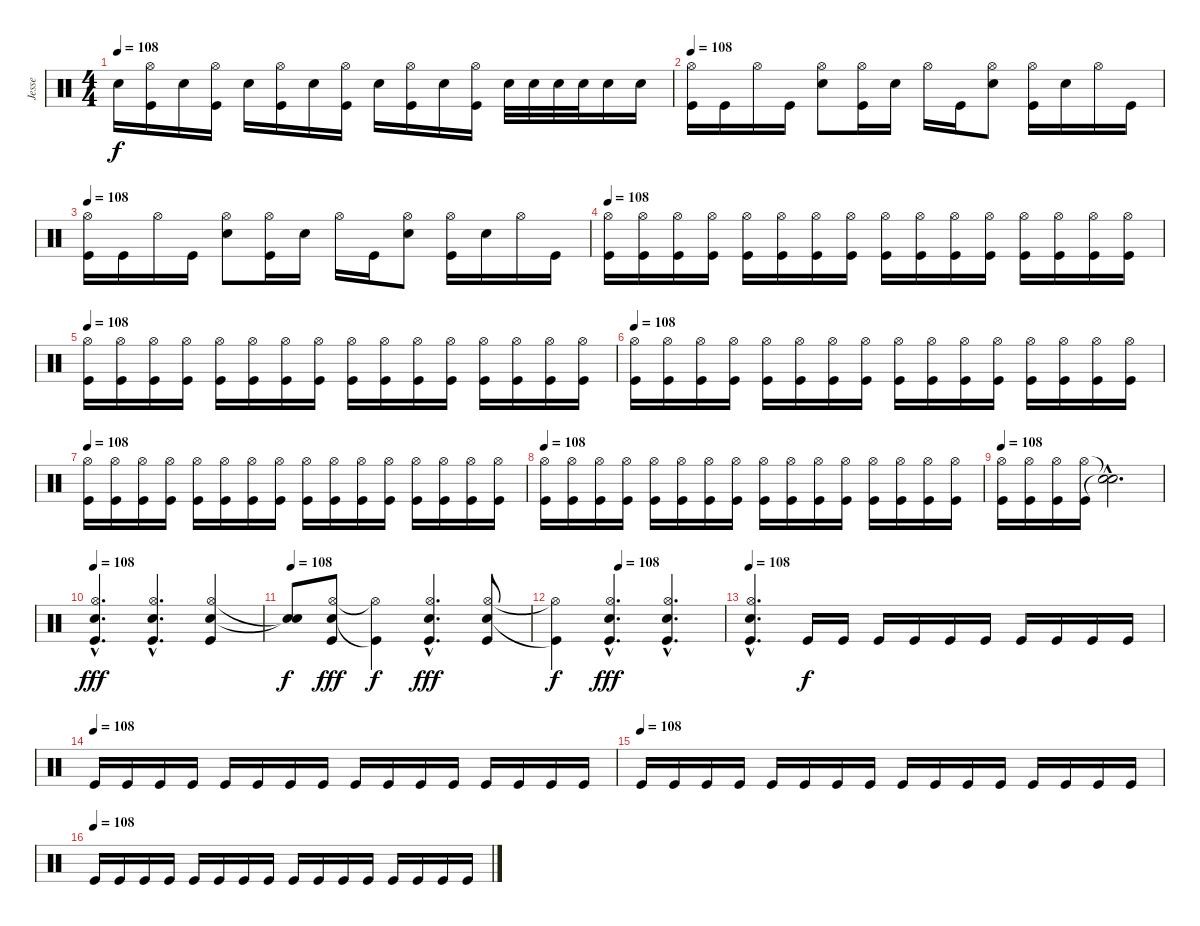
\track ("Jesse" "Jesse") {instrument percussion}
\staff {score}
\articulation defaults
\ts (4 4)
\tempo 108
\clef neutral
\ks c "Snare (hit) 2".16{dy f}
("Hi-Hat (open)" "Kick (hit)").16 "Snare (hit) 2".16 ("Hi-Hat (open)" "Kick (hit)").16 "Snare (hit) 2".16 ("Hi-Hat (open)" "Kick (hit)").16 "Snare (hit) 2".16 ("Hi-Hat (open)" "Kick (hit)").16 "Snare (hit) 2".16 ("Hi-Hat (open)" "Kick (hit)").16 "Snare (hit) 2".16 ("Hi-Hat (open)" "Kick (hit)").16 "Snare (hit) 2".32 "Snare (hit) 2".32 "Snare (hit) 2".32 "Snare (hit) 2".32 "Snare (hit) 2".16 "Snare (hit) 2".16 |
\tempo 108
("Hi-Hat (open)" "Kick (hit)").16 "Kick (hit)".16 "Hi-Hat (open)".16 "Kick (hit)".16 ("Hi-Hat (open)" "Snare (hit) 2").8 ("Hi-Hat (open)" "Kick (hit)").16 "Snare (hit) 2".16 "Hi-Hat (open)".16 "Kick (hit)".16 ("Hi-Hat (open)" "Snare (hit) 2").8 ("Hi-Hat (open)" "Kick (hit)").16 "Snare (hit) 2".16 "Hi-Hat (open)".16 "Kick (hit)".16 |
\tempo 108
("Hi-Hat (open)" "Kick (hit)").16 "Kick (hit)".16 "Hi-Hat (open)".16 "Kick (hit)".16 ("Hi-Hat (open)" "Snare (hit) 2").8 ("Hi-Hat (open)" "Kick (hit)").16 "Snare (hit) 2".16 "Hi-Hat (open)".16 "Kick (hit)".16 ("Hi-Hat (open)" "Snare (hit) 2").8 ("Hi-Hat (open)" "Kick (hit)").16 "Snare (hit) 2".16 "Hi-Hat (open)".16 "Kick (hit)".16 |
\tempo 108
("Hi-Hat (open)" "Kick (hit)").16 ("Hi-Hat (open)" "Kick (hit)").16 ("Hi-Hat (open)" "Kick (hit)").16 ("Hi-Hat (open)" "Kick (hit)").16 ("Hi-Hat (open)" "Kick (hit)").16 ("Hi-Hat (open)" "Kick (hit)").16 ("Hi-Hat (open)" "Kick (hit)").16 ("Hi-Hat (open)" "Kick (hit)").16 ("Hi-Hat (open)" "Kick (hit)").16 ("Hi-Hat (open)" "Kick (hit)").16 ("Hi-Hat (open)" "Kick (hit)").16 ("Hi-Hat (open)" "Kick (hit)").16 ("Hi-Hat (open)" "Kick (hit)").16 ("Hi-Hat (open)" "Kick (hit)").16 ("Hi-Hat (open)" "Kick (hit)").16 ("Hi-Hat (open)" "Kick (hit)").16 |
\tempo 108
("Hi-Hat (open)" "Kick (hit)").16 ("Hi-Hat (open)" "Kick (hit)").16 ("Hi-Hat (open)" "Kick (hit)").16 ("Hi-Hat (open)" "Kick (hit)").16 ("Hi-Hat (open)" "Kick (hit)").16 ("Hi-Hat (open)" "Kick (hit)").16 ("Hi-Hat (open)" "Kick (hit)").16 ("Hi-Hat (open)" "Kick (hit)").16 ("Hi-Hat (open)" "Kick (hit)").16 ("Hi-Hat (open)" "Kick (hit)").16 ("Hi-Hat (open)" "Kick (hit)").16 ("Hi-Hat (open)" "Kick (hit)").16 ("Hi-Hat (open)" "Kick (hit)").16 ("Hi-Hat (open)" "Kick (hit)").16 ("Hi-Hat (open)" "Kick (hit)").16 ("Hi-Hat (open)" "Kick (hit)").16 |
\tempo 108
("Hi-Hat (open)" "Kick (hit)").16 ("Hi-Hat (open)" "Kick (hit)").16 ("Hi-Hat (open)" "Kick (hit)").16 ("Hi-Hat (open)" "Kick (hit)").16 ("Hi-Hat (open)" "Kick (hit)").16 ("Hi-Hat (open)" "Kick (hit)").16 ("Hi-Hat (open)" "Kick (hit)").16 ("Hi-Hat (open)" "Kick (hit)").16 ("Hi-Hat (open)" "Kick (hit)").16 ("Hi-Hat (open)" "Kick (hit)").16 ("Hi-Hat (open)" "Kick (hit)").16 ("Hi-Hat (open)" "Kick (hit)").16 ("Hi-Hat (open)" "Kick (hit)").16 ("Hi-Hat (open)" "Kick (hit)").16 ("Hi-Hat (open)" "Kick (hit)").16 ("Hi-Hat (open)" "Kick (hit)").16 |
\tempo 108
("Hi-Hat (open)" "Kick (hit)").16 ("Hi-Hat (open)" "Kick (hit)").16 ("Hi-Hat (open)" "Kick (hit)").16 ("Hi-Hat (open)" "Kick (hit)").16 ("Hi-Hat (open)" "Kick (hit)").16 ("Hi-Hat (open)" "Kick (hit)").16 ("Hi-Hat (open)" "Kick (hit)").16 ("Hi-Hat (open)" "Kick (hit)").16 ("Hi-Hat (open)" "Kick (hit)").16 ("Hi-Hat (open)" "Kick (hit)").16 ("Hi-Hat (open)" "Kick (hit)").16 ("Hi-Hat (open)" "Kick (hit)").16 ("Hi-Hat (open)" "Kick (hit)").16 ("Hi-Hat (open)" "Kick (hit)").16 ("Hi-Hat (open)" "Kick (hit)").16 ("Hi-Hat (open)" "Kick (hit)").16 |
\tempo 108
("Hi-Hat (open)" "Kick (hit)").16 ("Hi-Hat (open)" "Kick (hit)").16 ("Hi-Hat (open)" "Kick (hit)").16 ("Hi-Hat (open)" "Kick (hit)").16 ("Hi-Hat (open)" "Kick (hit)").16 ("Hi-Hat (open)" "Kick (hit)").16 ("Hi-Hat (open)" "Kick (hit)").16 ("Hi-Hat (open)" "Kick (hit)").16 ("Hi-Hat (open)" "Kick (hit)").16 ("Hi-Hat (open)" "Kick (hit)").16 ("Hi-Hat (open)" "Kick (hit)").16 ("Hi-Hat (open)" "Kick (hit)").16 ("Hi-Hat (open)" "Kick (hit)").16 ("Hi-Hat (open)" "Kick (hit)").16 ("Hi-Hat (open)" "Kick (hit)").16 ("Hi-Hat (open)" "Kick (hit)").16 |
\tempo 108
("Hi-Hat (open)" "Kick (hit)").16 ("Hi-Hat (open)" "Kick (hit)").16 ("Hi-Hat (open)" "Kick (hit)").16 ("Hi-Hat (open)" "Kick (hit)").16 ("Snare (hit)"{hac t} "Snare (hit)"{hac t}).2{d} |
\tempo 108
("Hi-Hat (open)"{hac} "Snare (hit) 2"{hac} "Kick (hit)"{hac}).4{d dy fff} ("Hi-Hat (open)"{hac} "Snare (hit) 2"{hac} "Kick (hit)"{hac}).4{d} ("Hi-Hat (open)" "Snare (hit) 2" "Kick (hit)").4 |
\tempo 139
\tempo 108
("Snare (hit)"{t} "Snare (hit)"{t}).8{dy f} ("Hi-Hat (open)" "Snare (hit) 2" "Kick (hit)").8{dy fff} ("Hi-Hat (open)"{t} "Kick (hit)"{t}).4{dy f} ("Hi-Hat (open)"{hac} "Snare (hit) 2"{hac} "Kick (hit)"{hac}).4{d dy fff} ("Hi-Hat (open)" "Snare (hit) 2" "Kick (hit)").8 |
\tempo (108 0.375)
("Hi-Hat (open)"{t} "Kick (hit)"{t}).4{dy f} ("Hi-Hat (open)"{hac} "Snare (hit) 2"{hac} "Kick (hit)"{hac}).4{d dy fff} ("Hi-Hat (open)"{hac} "Snare (hit) 2"{hac} "Kick (hit)"{hac}).4{d} |
\tempo 108
("Hi-Hat (open)"{hac} "Snare (hit) 2"{hac} "Kick (hit)"{hac}).4{d} "Kick (hit)".16{dy f} "Kick (hit)".16 "Kick (hit)".16 "Kick (hit)".16 "Kick (hit)".16 "Kick (hit)".16 "Kick (hit)".16 "Kick (hit)".16 "Kick (hit)".16 "Kick (hit)".16 |
\tempo (108)
"Kick (hit)".16 "Kick (hit)".16 "Kick (hit)".16 "Kick (hit)".16 "Kick (hit)".16 "Kick (hit)".16 "Kick (hit)".16 "Kick (hit)".16 "Kick (hit)".16 "Kick (hit)".16 "Kick (hit)".16 "Kick (hit)".16 "Kick (hit)".16 "Kick (hit)".16 "Kick (hit)".16 "Kick (hit)".16 |
\tempo (108)
"Kick (hit)".16 "Kick (hit)".16 "Kick (hit)".16 "Kick (hit)".16 "Kick (hit)".16 "Kick (hit)".16 "Kick (hit)".16 "Kick (hit)".16 "Kick (hit)".16 "Kick (hit)".16 "Kick (hit)".16 "Kick (hit)".16 "Kick (hit)".16 "Kick (hit)".16 "Kick (hit)".16 "Kick (hit)".16 |
\tempo (108)
"Kick (hit)".16 "Kick (hit)".16 "Kick (hit)".16 "Kick (hit)".16 "Kick (hit)".16 "Kick (hit)".16 "Kick (hit)".16 "Kick (hit)".16 "Kick (hit)".16 "Kick (hit)".16 "Kick (hit)".16 "Kick (hit)".16 "Kick (hit)".16 "Kick (hit)".16 "Kick (hit)".16 "Kick (hit)".16
